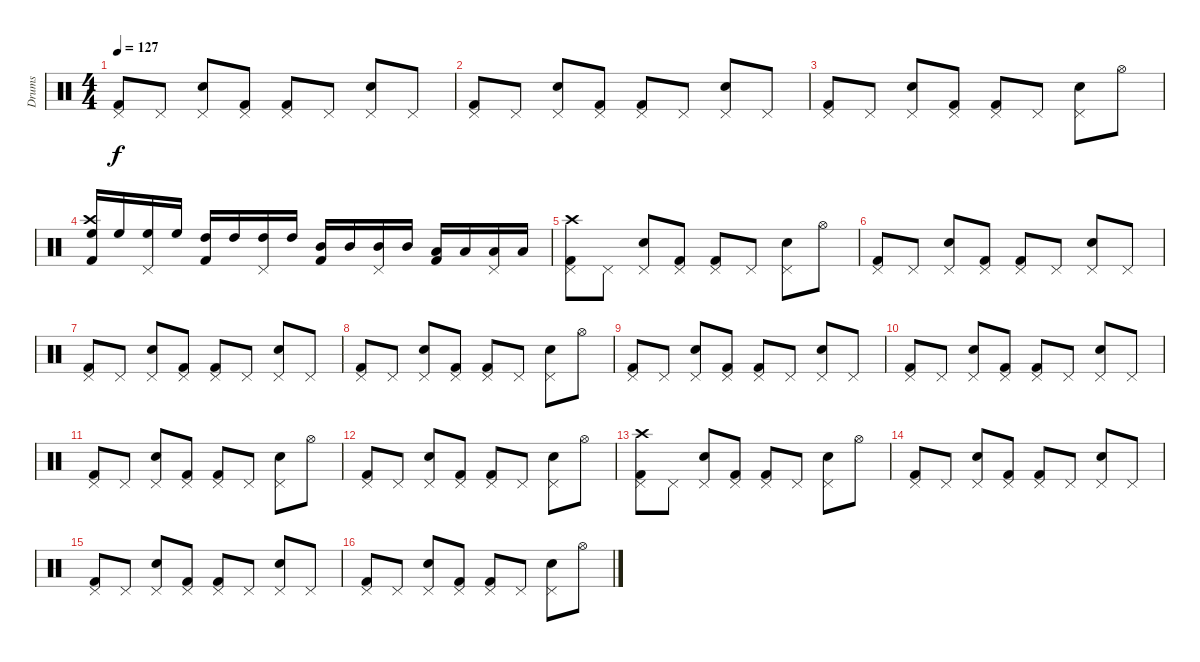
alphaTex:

\track ("Drums" "Drums") {instrument percussion}
\staff {score}
\articulation defaults
\ts (4 4)
\tempo 127
\clef neutral
\ks c
("Pedal Hi-Hat (hit)" "Kick (hit) 2").8{dy f} "Pedal Hi-Hat (hit)".8 ("Pedal Hi-Hat (hit)" "Snare (hit) 2").8 ("Pedal Hi-Hat (hit)" "Kick (hit) 2").8 ("Pedal Hi-Hat (hit)" "Kick (hit) 2").8 "Pedal Hi-Hat (hit)".8 ("Pedal Hi-Hat (hit)" "Snare (hit) 2").8 "Pedal Hi-Hat (hit)".8 |
("Pedal Hi-Hat (hit)" "Kick (hit) 2").8 "Pedal Hi-Hat (hit)".8 ("Pedal Hi-Hat (hit)" "Snare (hit) 2").8 ("Pedal Hi-Hat (hit)" "Kick (hit) 2").8 ("Pedal Hi-Hat (hit)" "Kick (hit) 2").8 "Pedal Hi-Hat (hit)".8 ("Pedal Hi-Hat (hit)" "Snare (hit) 2").8 "Pedal Hi-Hat (hit)".8 |
("Pedal Hi-Hat (hit)" "Kick (hit) 2").8 "Pedal Hi-Hat (hit)".8 ("Pedal Hi-Hat (hit)" "Snare (hit) 2").8 ("Pedal Hi-Hat (hit)" "Kick (hit) 2").8 ("Pedal Hi-Hat (hit)" "Kick (hit) 2").8 "Pedal Hi-Hat (hit)".8 ("Pedal Hi-Hat (hit)" "Snare (hit) 2").8 "Hi-Hat (open)".8 |
("Crash high (hit)" "High Floor Tom (hit)" "Kick (hit) 2").16 "High Floor Tom (hit)".16 ("Pedal Hi-Hat (hit)" "High Floor Tom (hit)").16 "High Floor Tom (hit)".16 ("High Tom (hit)" "Kick (hit) 2").16 "High Tom (hit)".16 ("Pedal Hi-Hat (hit)" "High Tom (hit)").16 "High Tom (hit)".16 ("Mid Tom (hit)" "Kick (hit) 2").16 "Mid Tom (hit)".16 ("Pedal Hi-Hat (hit)" "Mid Tom (hit)").16 "Mid Tom (hit)".16 ("Low Tom (hit)" "Kick (hit) 2").16 "Low Tom (hit)".16 ("Pedal Hi-Hat (hit)" "Low Tom (hit)").16 "Low Tom (hit)".16 |
("Crash high (hit)" "Pedal Hi-Hat (hit)" "Kick (hit) 2").8 "Pedal Hi-Hat (hit)".8 ("Pedal Hi-Hat (hit)" "Snare (hit) 2").8 ("Pedal Hi-Hat (hit)" "Kick (hit) 2").8 ("Pedal Hi-Hat (hit)" "Kick (hit) 2").8 "Pedal Hi-Hat (hit)".8 ("Pedal Hi-Hat (hit)" "Snare (hit) 2").8 "Hi-Hat (open)".8 |
("Pedal Hi-Hat (hit)" "Kick (hit) 2").8 "Pedal Hi-Hat (hit)".8 ("Pedal Hi-Hat (hit)" "Snare (hit) 2").8 ("Pedal Hi-Hat (hit)" "Kick (hit) 2").8 ("Pedal Hi-Hat (hit)" "Kick (hit) 2").8 "Pedal Hi-Hat (hit)".8 ("Pedal Hi-Hat (hit)" "Snare (hit) 2").8 "Pedal Hi-Hat (hit)".8 |
("Pedal Hi-Hat (hit)" "Kick (hit) 2").8 "Pedal Hi-Hat (hit)".8 ("Pedal Hi-Hat (hit)" "Snare (hit) 2").8 ("Pedal Hi-Hat (hit)" "Kick (hit) 2").8 ("Pedal Hi-Hat (hit)" "Kick (hit) 2").8 "Pedal Hi-Hat (hit)".8 ("Pedal Hi-Hat (hit)" "Snare (hit) 2").8 "Pedal Hi-Hat (hit)".8 |
("Pedal Hi-Hat (hit)" "Kick (hit) 2").8 "Pedal Hi-Hat (hit)".8 ("Pedal Hi-Hat (hit)" "Snare (hit) 2").8 ("Pedal Hi-Hat (hit)" "Kick (hit) 2").8 ("Pedal Hi-Hat (hit)" "Kick (hit) 2").8 "Pedal Hi-Hat (hit)".8 ("Pedal Hi-Hat (hit)" "Snare (hit) 2").8 "Hi-Hat (open)".8 |
("Pedal Hi-Hat (hit)" "Kick (hit) 2").8 "Pedal Hi-Hat (hit)".8 ("Pedal Hi-Hat (hit)" "Snare (hit) 2").8 ("Pedal Hi-Hat (hit)" "Kick (hit) 2").8 ("Pedal Hi-Hat (hit)" "Kick (hit) 2").8 "Pedal Hi-Hat (hit)".8 ("Pedal Hi-Hat (hit)" "Snare (hit) 2").8 "Pedal Hi-Hat (hit)".8 |
("Pedal Hi-Hat (hit)" "Kick (hit) 2").8 "Pedal Hi-Hat (hit)".8 ("Pedal Hi-Hat (hit)" "Snare (hit) 2").8 ("Pedal Hi-Hat (hit)" "Kick (hit) 2").8 ("Pedal Hi-Hat (hit)" "Kick (hit) 2").8 "Pedal Hi-Hat (hit)".8 ("Pedal Hi-Hat (hit)" "Snare (hit) 2").8 "Pedal Hi-Hat (hit)".8 |
("Pedal Hi-Hat (hit)" "Kick (hit) 2").8 "Pedal Hi-Hat (hit)".8 ("Pedal Hi-Hat (hit)" "Snare (hit) 2").8 ("Pedal Hi-Hat (hit)" "Kick (hit) 2").8 ("Pedal Hi-Hat (hit)" "Kick (hit) 2").8 "Pedal Hi-Hat (hit)".8 ("Pedal Hi-Hat (hit)" "Snare (hit) 2").8 "Hi-Hat (open)".8 |
("Pedal Hi-Hat (hit)" "Kick (hit) 2").8 "Pedal Hi-Hat (hit)".8 ("Pedal Hi-Hat (hit)" "Snare (hit) 2").8 ("Pedal Hi-Hat (hit)" "Kick (hit) 2").8 ("Pedal Hi-Hat (hit)" "Kick (hit) 2").8 "Pedal Hi-Hat (hit)".8 ("Pedal Hi-Hat (hit)" "Snare (hit) 2").8 "Hi-Hat (open)".8 |
("Crash high (hit)" "Pedal Hi-Hat (hit)" "Kick (hit) 2").8 "Pedal Hi-Hat (hit)".8 ("Pedal Hi-Hat (hit)" "Snare (hit) 2").8 ("Pedal Hi-Hat (hit)" "Kick (hit) 2").8 ("Pedal Hi-Hat (hit)" "Kick (hit) 2").8 "Pedal Hi-Hat (hit)".8 ("Pedal Hi-Hat (hit)" "Snare (hit) 2").8 "Hi-Hat (open)".8 |
("Pedal Hi-Hat (hit)" "Kick (hit) 2").8 "Pedal Hi-Hat (hit)".8 ("Pedal Hi-Hat (hit)" "Snare (hit) 2").8 ("Pedal Hi-Hat (hit)" "Kick (hit) 2").8 ("Pedal Hi-Hat (hit)" "Kick (hit) 2").8 "Pedal Hi-Hat (hit)".8 ("Pedal Hi-Hat (hit)" "Snare (hit) 2").8 "Pedal Hi-Hat (hit)".8 |
("Pedal Hi-Hat (hit)" "Kick (hit) 2").8 "Pedal Hi-Hat (hit)".8 ("Pedal Hi-Hat (hit)" "Snare (hit) 2").8 ("Pedal Hi-Hat (hit)" "Kick (hit) 2").8 ("Pedal Hi-Hat (hit)" "Kick (hit) 2").8 "Pedal Hi-Hat (hit)".8 ("Pedal Hi-Hat (hit)" "Snare (hit) 2").8 "Pedal Hi-Hat (hit)".8 |
("Pedal Hi-Hat (hit)" "Kick (hit) 2").8 "Pedal Hi-Hat (hit)".8 ("Pedal Hi-Hat (hit)" "Snare (hit) 2").8 ("Pedal Hi-Hat (hit)" "Kick (hit) 2").8 ("Pedal Hi-Hat (hit)" "Kick (hit) 2").8 "Pedal Hi-Hat (hit)".8 ("Pedal Hi-Hat (hit)" "Snare (hit) 2").8 "Hi-Hat (open)".8
